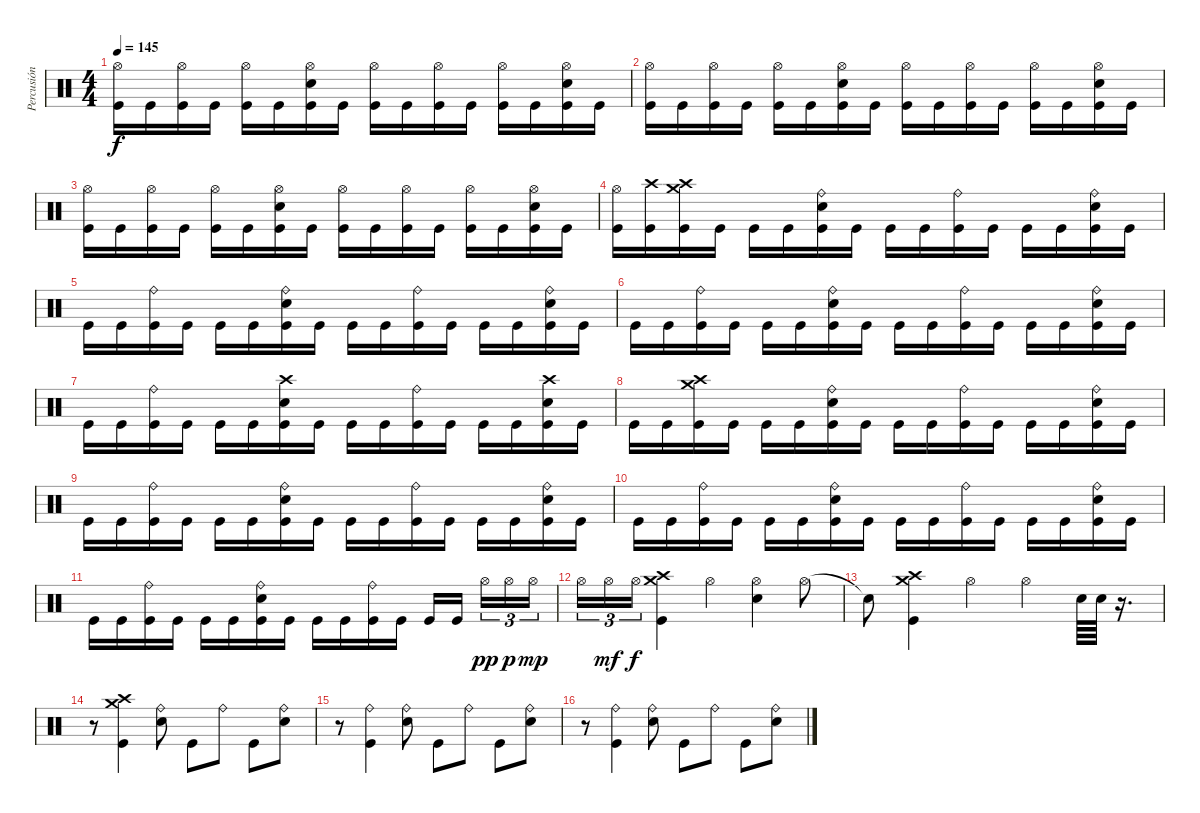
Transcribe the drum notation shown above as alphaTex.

\track ("Percusión" "Percusión") {instrument percussion}
\staff {score}
\articulation defaults
\ts (4 4)
\tempo 145
\clef neutral
\ks c
("Hi-Hat (open)" "Kick (hit)").16{dy f} "Kick (hit)".16 ("Hi-Hat (open)" "Kick (hit)").16 "Kick (hit)".16 ("Hi-Hat (open)" "Kick (hit)").16 "Kick (hit)".16 ("Hi-Hat (open)" "Snare (hit) 2" "Kick (hit)").16 "Kick (hit)".16 ("Hi-Hat (open)" "Kick (hit)").16 "Kick (hit)".16 ("Hi-Hat (open)" "Kick (hit)").16 "Kick (hit)".16 ("Hi-Hat (open)" "Kick (hit)").16 "Kick (hit)".16 ("Hi-Hat (open)" "Snare (hit) 2" "Kick (hit)").16 "Kick (hit)".16 |
("Hi-Hat (open)" "Kick (hit)").16 "Kick (hit)".16 ("Hi-Hat (open)" "Kick (hit)").16 "Kick (hit)".16 ("Hi-Hat (open)" "Kick (hit)").16 "Kick (hit)".16 ("Hi-Hat (open)" "Snare (hit) 2" "Kick (hit)").16 "Kick (hit)".16 ("Hi-Hat (open)" "Kick (hit)").16 "Kick (hit)".16 ("Hi-Hat (open)" "Kick (hit)").16 "Kick (hit)".16 ("Hi-Hat (open)" "Kick (hit)").16 "Kick (hit)".16 ("Hi-Hat (open)" "Snare (hit) 2" "Kick (hit)").16 "Kick (hit)".16 |
("Hi-Hat (open)" "Kick (hit)").16 "Kick (hit)".16 ("Hi-Hat (open)" "Kick (hit)").16 "Kick (hit)".16 ("Hi-Hat (open)" "Kick (hit)").16 "Kick (hit)".16 ("Hi-Hat (open)" "Snare (hit) 2" "Kick (hit)").16 "Kick (hit)".16 ("Hi-Hat (open)" "Kick (hit)").16 "Kick (hit)".16 ("Hi-Hat (open)" "Kick (hit)").16 "Kick (hit)".16 ("Hi-Hat (open)" "Kick (hit)").16 "Kick (hit)".16 ("Hi-Hat (open)" "Snare (hit) 2" "Kick (hit)").16 "Kick (hit)".16 |
("Hi-Hat (open)" "Kick (hit)").16 ("Crash high (hit)" "Kick (hit)").16 ("Crash medium (hit)" "Crash high (hit)" "Kick (hit)").16 "Kick (hit)".16 "Kick (hit)".16 "Kick (hit)".16 ("Ride (bell)" "Snare (hit) 2" "Kick (hit)").16 "Kick (hit)".16 "Kick (hit)".16 "Kick (hit)".16 ("Ride (bell)" "Kick (hit)").16 "Kick (hit)".16 "Kick (hit)".16 "Kick (hit)".16 ("Ride (bell)" "Snare (hit) 2" "Kick (hit)").16 "Kick (hit)".16 |
"Kick (hit)".16 "Kick (hit)".16 ("Ride (bell)" "Kick (hit)").16 "Kick (hit)".16 "Kick (hit)".16 "Kick (hit)".16 ("Ride (bell)" "Snare (hit) 2" "Kick (hit)").16 "Kick (hit)".16 "Kick (hit)".16 "Kick (hit)".16 ("Ride (bell)" "Kick (hit)").16 "Kick (hit)".16 "Kick (hit)".16 "Kick (hit)".16 ("Ride (bell)" "Snare (hit) 2" "Kick (hit)").16 "Kick (hit)".16 |
"Kick (hit)".16 "Kick (hit)".16 ("Ride (bell)" "Kick (hit)").16 "Kick (hit)".16 "Kick (hit)".16 "Kick (hit)".16 ("Ride (bell)" "Snare (hit) 2" "Kick (hit)").16 "Kick (hit)".16 "Kick (hit)".16 "Kick (hit)".16 ("Ride (bell)" "Kick (hit)").16 "Kick (hit)".16 "Kick (hit)".16 "Kick (hit)".16 ("Ride (bell)" "Snare (hit) 2" "Kick (hit)").16 "Kick (hit)".16 |
"Kick (hit)".16 "Kick (hit)".16 ("Ride (bell)" "Kick (hit)").16 "Kick (hit)".16 "Kick (hit)".16 "Kick (hit)".16 ("Crash high (hit)" "Snare (hit) 2" "Kick (hit)").16 "Kick (hit)".16 "Kick (hit)".16 "Kick (hit)".16 ("Ride (bell)" "Kick (hit)").16 "Kick (hit)".16 "Kick (hit)".16 "Kick (hit)".16 ("Crash high (hit)" "Snare (hit) 2" "Kick (hit)").16 "Kick (hit)".16 |
"Kick (hit)".16 "Kick (hit)".16 ("Crash medium (hit)" "Crash high (hit)" "Kick (hit)").16 "Kick (hit)".16 "Kick (hit)".16 "Kick (hit)".16 ("Ride (bell)" "Snare (hit) 2" "Kick (hit)").16 "Kick (hit)".16 "Kick (hit)".16 "Kick (hit)".16 ("Ride (bell)" "Kick (hit)").16 "Kick (hit)".16 "Kick (hit)".16 "Kick (hit)".16 ("Ride (bell)" "Snare (hit) 2" "Kick (hit)").16 "Kick (hit)".16 |
"Kick (hit)".16 "Kick (hit)".16 ("Ride (bell)" "Kick (hit)").16 "Kick (hit)".16 "Kick (hit)".16 "Kick (hit)".16 ("Ride (bell)" "Snare (hit) 2" "Kick (hit)").16 "Kick (hit)".16 "Kick (hit)".16 "Kick (hit)".16 ("Ride (bell)" "Kick (hit)").16 "Kick (hit)".16 "Kick (hit)".16 "Kick (hit)".16 ("Ride (bell)" "Snare (hit) 2" "Kick (hit)").16 "Kick (hit)".16 |
"Kick (hit)".16 "Kick (hit)".16 ("Ride (bell)" "Kick (hit)").16 "Kick (hit)".16 "Kick (hit)".16 "Kick (hit)".16 ("Ride (bell)" "Snare (hit) 2" "Kick (hit)").16 "Kick (hit)".16 "Kick (hit)".16 "Kick (hit)".16 ("Ride (bell)" "Kick (hit)").16 "Kick (hit)".16 "Kick (hit)".16 "Kick (hit)".16 ("Ride (bell)" "Snare (hit) 2" "Kick (hit)").16 "Kick (hit)".16 |
"Kick (hit)".16 "Kick (hit)".16 ("Ride (bell)" "Kick (hit)").16 "Kick (hit)".16 "Kick (hit)".16 "Kick (hit)".16 ("Ride (bell)" "Snare (hit) 2" "Kick (hit)").16 "Kick (hit)".16 "Kick (hit)".16 "Kick (hit)".16 ("Ride (bell)" "Kick (hit)").16 "Kick (hit)".16 "Kick (hit)".16 "Kick (hit)".16 "Hi-Hat (open)".16{tu (3 2) dy pp} "Hi-Hat (open)".16{tu (3 2) dy p} "Hi-Hat (open)".16{tu (3 2) dy mp} |
"Hi-Hat (open)".16{tu (3 2)} "Hi-Hat (open)".16{tu (3 2) dy mf} "Hi-Hat (open)".16{tu (3 2) dy f} ("Crash high (hit)" "Crash medium (hit)" "Kick (hit)").4 "Hi-Hat (open)".4 ("Hi-Hat (open)" "Snare (hit) 2").4 "Hi-Hat (open)".8 |
"Snare (hit)"{t}.8 ("Crash high (hit)" "Crash medium (hit)" "Kick (hit)").4 "Hi-Hat (open)".4 "Hi-Hat (open)".4 "Snare (hit) 2".64 "Snare (hit) 2".64 r.16{d} |
r.8 ("Crash medium (hit)" "Crash high (hit)" "Kick (hit)").4 ("Ride (bell)" "Snare (hit) 2").8 "Kick (hit)".8 "Ride (bell)".8 "Kick (hit)".8 ("Ride (bell)" "Snare (hit) 2").8 |
r.8 ("Ride (bell)" "Kick (hit)").4 ("Ride (bell)" "Snare (hit) 2").8 "Kick (hit)".8 "Ride (bell)".8 "Kick (hit)".8 ("Ride (bell)" "Snare (hit) 2").8 |
r.8 ("Ride (bell)" "Kick (hit)").4 ("Ride (bell)" "Snare (hit) 2").8 "Kick (hit)".8 "Ride (bell)".8 "Kick (hit)".8 ("Ride (bell)" "Snare (hit) 2").8
